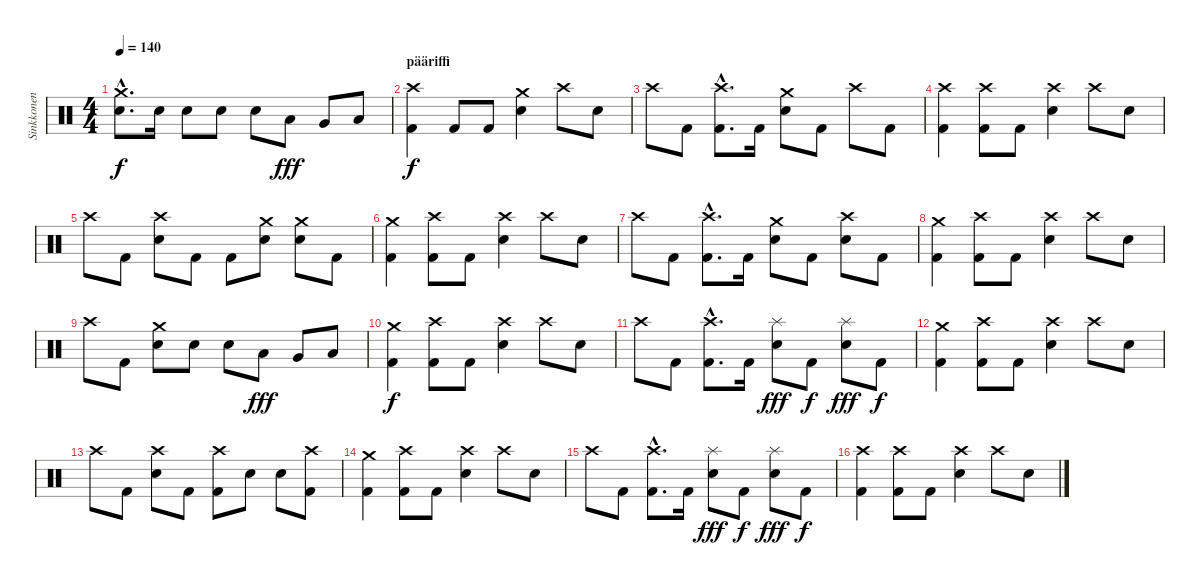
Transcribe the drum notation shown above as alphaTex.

\track ("Sinkkonen" "Sinkkonen") {instrument percussion}
\staff {score}
\articulation defaults
\ts (4 4)
\tempo 140
\clef neutral
\ks c
("Crash medium (hit)"{hac} "Snare (hit) 2"{hac}).8{d dy f} "Snare (hit) 2".16 "Snare (hit) 2".8 "Snare (hit) 2".8 "Snare (hit) 2".8 "Low Tom (hit)".8{dy fff} "Very Low Tom (hit)".8 "Low Floor Tom (hit)".8 |
\section ("" "pääriffi")
("Kick (hit) 2" "Crash high (hit)").4{dy f} "Kick (hit) 2".8 "Kick (hit) 2".8 ("Crash medium (hit)" "Snare (hit) 2").4 "Crash high (hit)".8 "Snare (hit) 2".8 |
"Crash high (hit)".8 "Kick (hit) 2".8 ("Kick (hit) 2"{hac} "Crash high (hit)"{hac}).8{d} "Kick (hit) 2".16 ("Crash medium (hit)" "Snare (hit) 2").8 "Kick (hit) 2".8 "Crash high (hit)".8 "Kick (hit) 2".8 |
("Kick (hit) 2" "Crash high (hit)").4 ("Kick (hit) 2" "Crash high (hit)").8 "Kick (hit) 2".8 ("Crash high (hit)" "Snare (hit) 2").4 "Crash high (hit)".8 "Snare (hit) 2".8 |
"Crash high (hit)".8 "Kick (hit) 2".8 ("Crash high (hit)" "Snare (hit) 2").8 "Kick (hit) 2".8 "Kick (hit) 2".8 ("Crash medium (hit)" "Snare (hit) 2").8 ("Crash medium (hit)" "Snare (hit) 2").8 "Kick (hit) 2".8 |
("Kick (hit) 2" "Crash medium (hit)").4 ("Kick (hit) 2" "Crash high (hit)").8 "Kick (hit) 2".8 ("Crash high (hit)" "Snare (hit) 2").4 "Crash high (hit)".8 "Snare (hit) 2".8 |
"Crash high (hit)".8 "Kick (hit) 2".8 ("Kick (hit) 2"{hac} "Crash high (hit)"{hac}).8{d} "Kick (hit) 2".16 ("Crash medium (hit)" "Snare (hit) 2").8 "Kick (hit) 2".8 ("Crash high (hit)" "Snare (hit) 2").8 "Kick (hit) 2".8 |
("Kick (hit) 2" "Crash medium (hit)").4 ("Kick (hit) 2" "Crash high (hit)").8 "Kick (hit) 2".8 ("Crash high (hit)" "Snare (hit) 2").4 "Crash high (hit)".8 "Snare (hit) 2".8 |
"Crash high (hit)".8 "Kick (hit) 2".8 ("Crash medium (hit)" "Snare (hit) 2").8 "Snare (hit) 2".8 "Snare (hit) 2".8 "Low Tom (hit)".8{dy fff} "Very Low Tom (hit)".8 "Low Floor Tom (hit)".8 |
("Kick (hit) 2" "Crash medium (hit)").4{dy f} ("Kick (hit) 2" "Crash high (hit)").8 "Kick (hit) 2".8 ("Crash high (hit)" "Snare (hit) 2").4 "Crash high (hit)".8 "Snare (hit) 2".8 |
"Crash high (hit)".8 "Kick (hit) 2".8 ("Kick (hit) 2"{hac} "Crash high (hit)"{hac}).8{d} "Kick (hit) 2".16 ("Splash (hit)" "Snare (hit) 2").8{dy fff} "Kick (hit) 2".8{dy f} ("Splash (hit)" "Snare (hit) 2").8{dy fff} "Kick (hit) 2".8{dy f} |
("Kick (hit) 2" "Crash medium (hit)").4 ("Kick (hit) 2" "Crash high (hit)").8 "Kick (hit) 2".8 ("Crash high (hit)" "Snare (hit) 2").4 "Crash high (hit)".8 "Snare (hit) 2".8 |
"Crash high (hit)".8 "Kick (hit) 2".8 ("Crash high (hit)" "Snare (hit) 2").8 "Kick (hit) 2".8 ("Kick (hit) 2" "Crash high (hit)").8 "Snare (hit) 2".8 "Snare (hit) 2".8 ("Kick (hit) 2" "Crash high (hit)").8 |
("Kick (hit) 2" "Crash medium (hit)").4 ("Kick (hit) 2" "Crash high (hit)").8 "Kick (hit) 2".8 ("Crash high (hit)" "Snare (hit) 2").4 "Crash high (hit)".8 "Snare (hit) 2".8 |
"Crash high (hit)".8 "Kick (hit) 2".8 ("Kick (hit) 2"{hac} "Crash high (hit)"{hac}).8{d} "Kick (hit) 2".16 ("Splash (hit)" "Snare (hit) 2").8{dy fff} "Kick (hit) 2".8{dy f} ("Splash (hit)" "Snare (hit) 2").8{dy fff} "Kick (hit) 2".8{dy f} |
("Kick (hit) 2" "Crash high (hit)").4 ("Kick (hit) 2" "Crash high (hit)").8 "Kick (hit) 2".8 ("Crash high (hit)" "Snare (hit) 2").4 "Crash high (hit)".8 "Snare (hit) 2".8
